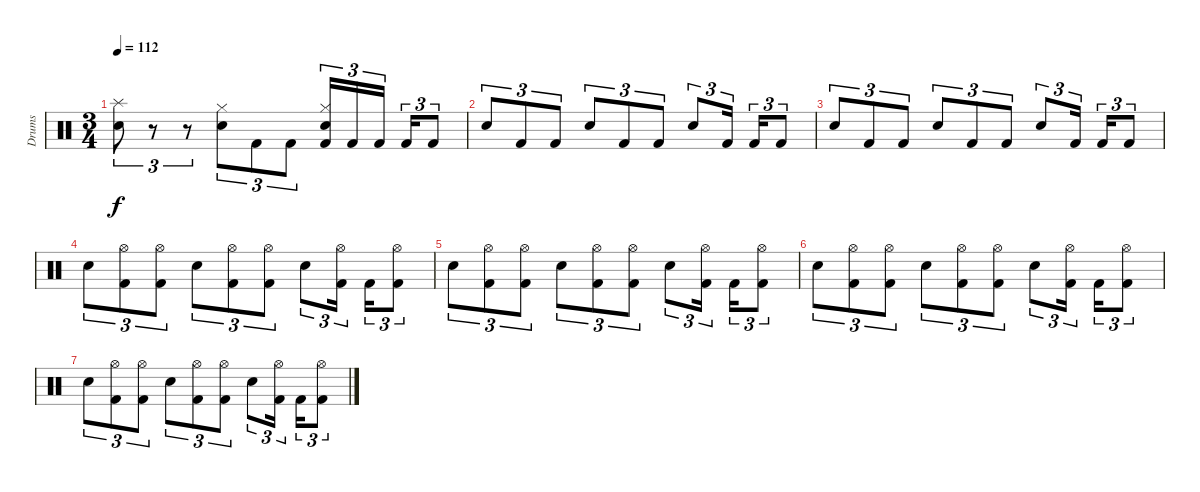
\track ("Drums" "Drums") {instrument percussion}
\staff {score}
\articulation defaults
\ts (3 4)
\tempo 112
\clef neutral
\ks c
("Splash (hit)" "Electric Snare (hit)").8{tu (3 2) dy f} r.8{tu (3 2)} r.8{tu (3 2)} ("Hi-Hat (closed)" "Electric Snare (hit)").8{tu (3 2)} "Kick (hit) 2".8{tu (3 2)} "Kick (hit) 2".8{tu (3 2)} ("Hi-Hat (closed)" "Electric Snare (hit)" "Kick (hit) 2").16{tu (3 2)} "Kick (hit) 2".16{tu (3 2)} "Kick (hit) 2".16{tu (3 2)} "Kick (hit) 2".16{tu (3 2)} "Kick (hit) 2".8{tu (3 2)} |
"Electric Snare (hit)".8{tu (3 2)} "Kick (hit) 2".8{tu (3 2)} "Kick (hit) 2".8{tu (3 2)} "Electric Snare (hit)".8{tu (3 2)} "Kick (hit) 2".8{tu (3 2)} "Kick (hit) 2".8{tu (3 2)} "Electric Snare (hit)".8{tu (3 2)} "Kick (hit) 2".16{tu (3 2)} "Kick (hit) 2".16{tu (3 2)} "Kick (hit) 2".8{tu (3 2)} |
"Electric Snare (hit)".8{tu (3 2)} "Kick (hit) 2".8{tu (3 2)} "Kick (hit) 2".8{tu (3 2)} "Electric Snare (hit)".8{tu (3 2)} "Kick (hit) 2".8{tu (3 2)} "Kick (hit) 2".8{tu (3 2)} "Electric Snare (hit)".8{tu (3 2)} "Kick (hit) 2".16{tu (3 2)} "Kick (hit) 2".16{tu (3 2)} "Kick (hit) 2".8{tu (3 2)} |
"Electric Snare (hit)".8{tu (3 2)} ("Hi-Hat (open)" "Kick (hit) 2").8{tu (3 2)} ("Hi-Hat (open)" "Kick (hit) 2").8{tu (3 2)} "Electric Snare (hit)".8{tu (3 2)} ("Hi-Hat (open)" "Kick (hit) 2").8{tu (3 2)} ("Hi-Hat (open)" "Kick (hit) 2").8{tu (3 2)} "Electric Snare (hit)".8{tu (3 2)} ("Hi-Hat (open)" "Kick (hit) 2").16{tu (3 2)} "Kick (hit) 2".16{tu (3 2)} ("Hi-Hat (open)" "Kick (hit) 2").8{tu (3 2)} |
"Electric Snare (hit)".8{tu (3 2)} ("Hi-Hat (open)" "Kick (hit) 2").8{tu (3 2)} ("Hi-Hat (open)" "Kick (hit) 2").8{tu (3 2)} "Electric Snare (hit)".8{tu (3 2)} ("Hi-Hat (open)" "Kick (hit) 2").8{tu (3 2)} ("Hi-Hat (open)" "Kick (hit) 2").8{tu (3 2)} "Electric Snare (hit)".8{tu (3 2)} ("Hi-Hat (open)" "Kick (hit) 2").16{tu (3 2)} "Kick (hit) 2".16{tu (3 2)} ("Hi-Hat (open)" "Kick (hit) 2").8{tu (3 2)} |
"Electric Snare (hit)".8{tu (3 2)} ("Hi-Hat (open)" "Kick (hit) 2").8{tu (3 2)} ("Hi-Hat (open)" "Kick (hit) 2").8{tu (3 2)} "Electric Snare (hit)".8{tu (3 2)} ("Hi-Hat (open)" "Kick (hit) 2").8{tu (3 2)} ("Hi-Hat (open)" "Kick (hit) 2").8{tu (3 2)} "Electric Snare (hit)".8{tu (3 2)} ("Hi-Hat (open)" "Kick (hit) 2").16{tu (3 2)} "Kick (hit) 2".16{tu (3 2)} ("Hi-Hat (open)" "Kick (hit) 2").8{tu (3 2)} |
"Electric Snare (hit)".8{tu (3 2)} ("Hi-Hat (open)" "Kick (hit) 2").8{tu (3 2)} ("Hi-Hat (open)" "Kick (hit) 2").8{tu (3 2)} "Electric Snare (hit)".8{tu (3 2)} ("Hi-Hat (open)" "Kick (hit) 2").8{tu (3 2)} ("Hi-Hat (open)" "Kick (hit) 2").8{tu (3 2)} "Electric Snare (hit)".8{tu (3 2)} ("Hi-Hat (open)" "Kick (hit) 2").16{tu (3 2)} "Kick (hit) 2".16{tu (3 2)} ("Hi-Hat (open)" "Kick (hit) 2").8{tu (3 2)}
